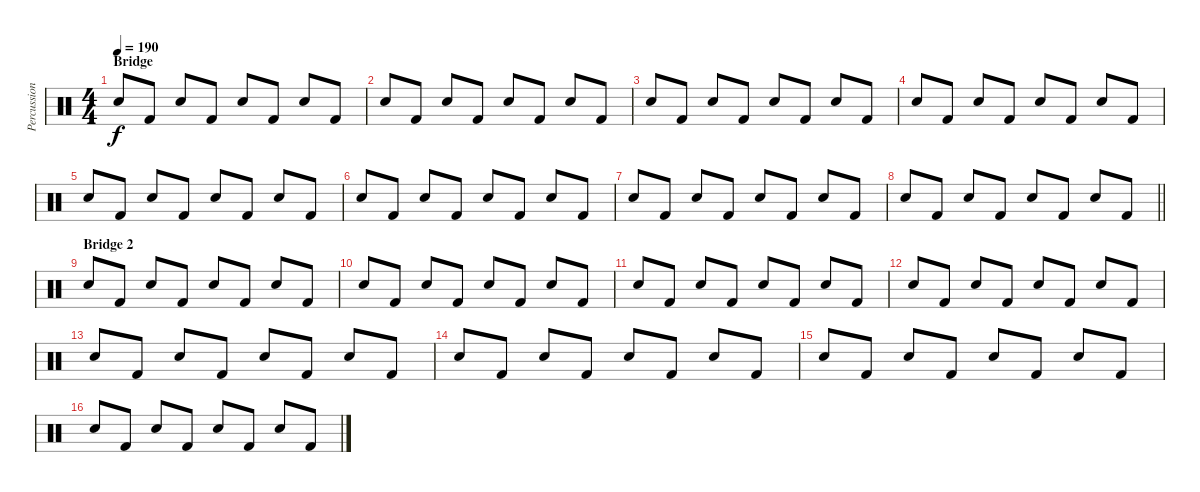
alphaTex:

\track ("Percussion" "Percussion") {instrument percussion}
\staff {score}
\articulation defaults
\ts (4 4)
\section ("" "Bridge")
\tempo 190
\clef neutral
\ks c "Electric Snare (hit)".8{dy f} "Kick (hit) 2".8 "Electric Snare (hit)".8 "Kick (hit) 2".8 "Electric Snare (hit)".8 "Kick (hit) 2".8 "Electric Snare (hit)".8 "Kick (hit) 2".8
|
"Electric Snare (hit)".8 "Kick (hit) 2".8 "Electric Snare (hit)".8 "Kick (hit) 2".8 "Electric Snare (hit)".8 "Kick (hit) 2".8 "Electric Snare (hit)".8 "Kick (hit) 2".8 |
"Electric Snare (hit)".8 "Kick (hit) 2".8 "Electric Snare (hit)".8 "Kick (hit) 2".8 "Electric Snare (hit)".8 "Kick (hit) 2".8 "Electric Snare (hit)".8 "Kick (hit) 2".8 |
"Electric Snare (hit)".8 "Kick (hit) 2".8 "Electric Snare (hit)".8 "Kick (hit) 2".8 "Electric Snare (hit)".8 "Kick (hit) 2".8 "Electric Snare (hit)".8 "Kick (hit) 2".8 |
"Electric Snare (hit)".8 "Kick (hit) 2".8 "Electric Snare (hit)".8 "Kick (hit) 2".8 "Electric Snare (hit)".8 "Kick (hit) 2".8 "Electric Snare (hit)".8 "Kick (hit) 2".8 |
"Electric Snare (hit)".8 "Kick (hit) 2".8 "Electric Snare (hit)".8 "Kick (hit) 2".8 "Electric Snare (hit)".8 "Kick (hit) 2".8 "Electric Snare (hit)".8 "Kick (hit) 2".8 |
"Electric Snare (hit)".8 "Kick (hit) 2".8 "Electric Snare (hit)".8 "Kick (hit) 2".8 "Electric Snare (hit)".8 "Kick (hit) 2".8 "Electric Snare (hit)".8 "Kick (hit) 2".8 |
\barLineRight lightlight "Electric Snare (hit)".8 "Kick (hit) 2".8 "Electric Snare (hit)".8 "Kick (hit) 2".8 "Electric Snare (hit)".8 "Kick (hit) 2".8 "Electric Snare (hit)".8 "Kick (hit) 2".8
|
\section ("" "Bridge 2")
"Electric Snare (hit)".8 "Kick (hit) 2".8 "Electric Snare (hit)".8 "Kick (hit) 2".8 "Electric Snare (hit)".8 "Kick (hit) 2".8 "Electric Snare (hit)".8 "Kick (hit) 2".8 |
"Electric Snare (hit)".8 "Kick (hit) 2".8 "Electric Snare (hit)".8 "Kick (hit) 2".8 "Electric Snare (hit)".8 "Kick (hit) 2".8 "Electric Snare (hit)".8 "Kick (hit) 2".8 |
"Electric Snare (hit)".8 "Kick (hit) 2".8 "Electric Snare (hit)".8 "Kick (hit) 2".8 "Electric Snare (hit)".8 "Kick (hit) 2".8 "Electric Snare (hit)".8 "Kick (hit) 2".8 |
"Electric Snare (hit)".8 "Kick (hit) 2".8 "Electric Snare (hit)".8 "Kick (hit) 2".8 "Electric Snare (hit)".8 "Kick (hit) 2".8 "Electric Snare (hit)".8 "Kick (hit) 2".8 |
"Electric Snare (hit)".8 "Kick (hit) 2".8 "Electric Snare (hit)".8 "Kick (hit) 2".8 "Electric Snare (hit)".8 "Kick (hit) 2".8 "Electric Snare (hit)".8 "Kick (hit) 2".8 |
"Electric Snare (hit)".8 "Kick (hit) 2".8 "Electric Snare (hit)".8 "Kick (hit) 2".8 "Electric Snare (hit)".8 "Kick (hit) 2".8 "Electric Snare (hit)".8 "Kick (hit) 2".8 |
"Electric Snare (hit)".8 "Kick (hit) 2".8 "Electric Snare (hit)".8 "Kick (hit) 2".8 "Electric Snare (hit)".8 "Kick (hit) 2".8 "Electric Snare (hit)".8 "Kick (hit) 2".8 |
"Electric Snare (hit)".8 "Kick (hit) 2".8 "Electric Snare (hit)".8 "Kick (hit) 2".8 "Electric Snare (hit)".8 "Kick (hit) 2".8 "Electric Snare (hit)".8 "Kick (hit) 2".8
